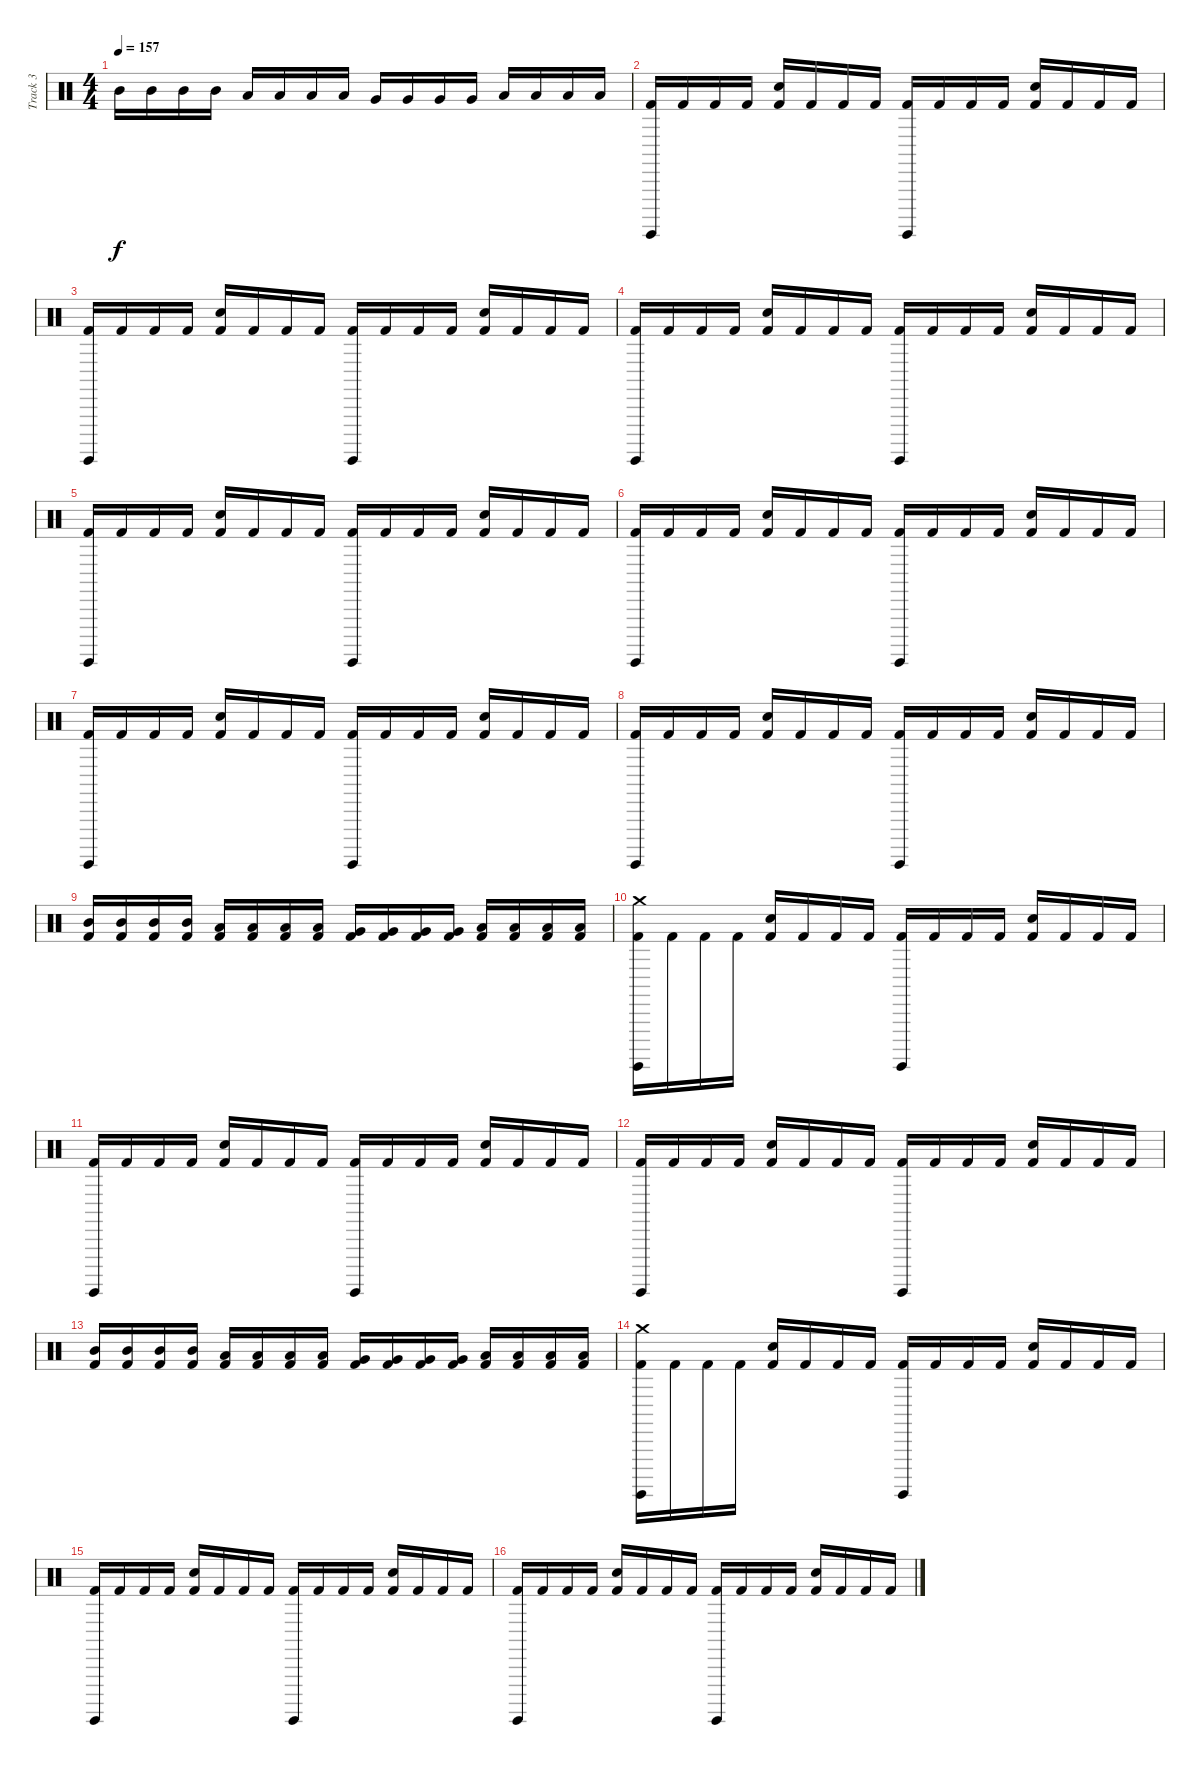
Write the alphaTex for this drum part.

\track ("Track 3" "Track 3") {instrument percussion}
\staff {score}
\articulation defaults
\ts (4 4)
\tempo 157
\clef neutral
\ks c "Mid Tom (hit)".16{dy f} "Mid Tom (hit)".16 "Mid Tom (hit)".16 "Mid Tom (hit)".16 "Low Tom (hit)".16 "Low Tom (hit)".16 "Low Tom (hit)".16 "Low Tom (hit)".16 "Very Low Tom (hit)".16 "Very Low Tom (hit)".16 "Very Low Tom (hit)".16 "Very Low Tom (hit)".16 "Low Floor Tom (hit)".16 "Low Floor Tom (hit)".16 "Low Floor Tom (hit)".16 "Low Floor Tom (hit)".16
|
("Kick (hit) 2" "Surdo (hit)").16 "Kick (hit) 2".16 "Kick (hit) 2".16 "Kick (hit) 2".16 ("Kick (hit) 2" "Snare (hit) 2").16 "Kick (hit) 2".16 "Kick (hit) 2".16 "Kick (hit) 2".16 ("Kick (hit) 2" "Surdo (hit)").16 "Kick (hit) 2".16 "Kick (hit) 2".16 "Kick (hit) 2".16 ("Kick (hit) 2" "Snare (hit) 2").16 "Kick (hit) 2".16 "Kick (hit) 2".16 "Kick (hit) 2".16 |
("Kick (hit) 2" "Surdo (hit)").16 "Kick (hit) 2".16 "Kick (hit) 2".16 "Kick (hit) 2".16 ("Kick (hit) 2" "Snare (hit) 2").16 "Kick (hit) 2".16 "Kick (hit) 2".16 "Kick (hit) 2".16 ("Kick (hit) 2" "Surdo (hit)").16 "Kick (hit) 2".16 "Kick (hit) 2".16 "Kick (hit) 2".16 ("Kick (hit) 2" "Snare (hit) 2").16 "Kick (hit) 2".16 "Kick (hit) 2".16 "Kick (hit) 2".16 |
("Kick (hit) 2" "Surdo (hit)").16 "Kick (hit) 2".16 "Kick (hit) 2".16 "Kick (hit) 2".16 ("Kick (hit) 2" "Snare (hit) 2").16 "Kick (hit) 2".16 "Kick (hit) 2".16 "Kick (hit) 2".16 ("Kick (hit) 2" "Surdo (hit)").16 "Kick (hit) 2".16 "Kick (hit) 2".16 "Kick (hit) 2".16 ("Kick (hit) 2" "Snare (hit) 2").16 "Kick (hit) 2".16 "Kick (hit) 2".16 "Kick (hit) 2".16 |
("Kick (hit) 2" "Surdo (hit)").16 "Kick (hit) 2".16 "Kick (hit) 2".16 "Kick (hit) 2".16 ("Kick (hit) 2" "Snare (hit) 2").16 "Kick (hit) 2".16 "Kick (hit) 2".16 "Kick (hit) 2".16 ("Kick (hit) 2" "Surdo (hit)").16 "Kick (hit) 2".16 "Kick (hit) 2".16 "Kick (hit) 2".16 ("Kick (hit) 2" "Snare (hit) 2").16 "Kick (hit) 2".16 "Kick (hit) 2".16 "Kick (hit) 2".16 |
("Kick (hit) 2" "Surdo (hit)").16 "Kick (hit) 2".16 "Kick (hit) 2".16 "Kick (hit) 2".16 ("Kick (hit) 2" "Snare (hit) 2").16 "Kick (hit) 2".16 "Kick (hit) 2".16 "Kick (hit) 2".16 ("Kick (hit) 2" "Surdo (hit)").16 "Kick (hit) 2".16 "Kick (hit) 2".16 "Kick (hit) 2".16 ("Kick (hit) 2" "Snare (hit) 2").16 "Kick (hit) 2".16 "Kick (hit) 2".16 "Kick (hit) 2".16 |
("Kick (hit) 2" "Surdo (hit)").16 "Kick (hit) 2".16 "Kick (hit) 2".16 "Kick (hit) 2".16 ("Kick (hit) 2" "Snare (hit) 2").16 "Kick (hit) 2".16 "Kick (hit) 2".16 "Kick (hit) 2".16 ("Kick (hit) 2" "Surdo (hit)").16 "Kick (hit) 2".16 "Kick (hit) 2".16 "Kick (hit) 2".16 ("Kick (hit) 2" "Snare (hit) 2").16 "Kick (hit) 2".16 "Kick (hit) 2".16 "Kick (hit) 2".16 |
("Kick (hit) 2" "Surdo (hit)").16 "Kick (hit) 2".16 "Kick (hit) 2".16 "Kick (hit) 2".16 ("Kick (hit) 2" "Snare (hit) 2").16 "Kick (hit) 2".16 "Kick (hit) 2".16 "Kick (hit) 2".16 ("Kick (hit) 2" "Surdo (hit)").16 "Kick (hit) 2".16 "Kick (hit) 2".16 "Kick (hit) 2".16 ("Kick (hit) 2" "Snare (hit) 2").16 "Kick (hit) 2".16 "Kick (hit) 2".16 "Kick (hit) 2".16 |
("Mid Tom (hit)" "Kick (hit) 2").16 ("Mid Tom (hit)" "Kick (hit) 2").16 ("Mid Tom (hit)" "Kick (hit) 2").16 ("Mid Tom (hit)" "Kick (hit) 2").16 ("Low Tom (hit)" "Kick (hit) 2").16 ("Low Tom (hit)" "Kick (hit) 2").16 ("Low Tom (hit)" "Kick (hit) 2").16 ("Low Tom (hit)" "Kick (hit) 2").16 ("Very Low Tom (hit)" "Kick (hit) 2").16 ("Very Low Tom (hit)" "Kick (hit) 2").16 ("Very Low Tom (hit)" "Kick (hit) 2").16 ("Very Low Tom (hit)" "Kick (hit) 2").16 ("Low Floor Tom (hit)" "Kick (hit) 2").16 ("Low Floor Tom (hit)" "Kick (hit) 2").16 ("Low Floor Tom (hit)" "Kick (hit) 2").16 ("Low Floor Tom (hit)" "Kick (hit) 2").16 |
("Kick (hit) 2" "Surdo (hit)" "Crash medium (hit)").16 "Kick (hit) 2".16 "Kick (hit) 2".16 "Kick (hit) 2".16 ("Kick (hit) 2" "Snare (hit) 2").16 "Kick (hit) 2".16 "Kick (hit) 2".16 "Kick (hit) 2".16 ("Kick (hit) 2" "Surdo (hit)").16 "Kick (hit) 2".16 "Kick (hit) 2".16 "Kick (hit) 2".16 ("Kick (hit) 2" "Snare (hit) 2").16 "Kick (hit) 2".16 "Kick (hit) 2".16 "Kick (hit) 2".16 |
("Kick (hit) 2" "Surdo (hit)").16 "Kick (hit) 2".16 "Kick (hit) 2".16 "Kick (hit) 2".16 ("Kick (hit) 2" "Snare (hit) 2").16 "Kick (hit) 2".16 "Kick (hit) 2".16 "Kick (hit) 2".16 ("Kick (hit) 2" "Surdo (hit)").16 "Kick (hit) 2".16 "Kick (hit) 2".16 "Kick (hit) 2".16 ("Kick (hit) 2" "Snare (hit) 2").16 "Kick (hit) 2".16 "Kick (hit) 2".16 "Kick (hit) 2".16 |
("Kick (hit) 2" "Surdo (hit)").16 "Kick (hit) 2".16 "Kick (hit) 2".16 "Kick (hit) 2".16 ("Kick (hit) 2" "Snare (hit) 2").16 "Kick (hit) 2".16 "Kick (hit) 2".16 "Kick (hit) 2".16 ("Kick (hit) 2" "Surdo (hit)").16 "Kick (hit) 2".16 "Kick (hit) 2".16 "Kick (hit) 2".16 ("Kick (hit) 2" "Snare (hit) 2").16 "Kick (hit) 2".16 "Kick (hit) 2".16 "Kick (hit) 2".16 |
("Mid Tom (hit)" "Kick (hit) 2").16 ("Mid Tom (hit)" "Kick (hit) 2").16 ("Mid Tom (hit)" "Kick (hit) 2").16 ("Mid Tom (hit)" "Kick (hit) 2").16 ("Low Tom (hit)" "Kick (hit) 2").16 ("Low Tom (hit)" "Kick (hit) 2").16 ("Low Tom (hit)" "Kick (hit) 2").16 ("Low Tom (hit)" "Kick (hit) 2").16 ("Very Low Tom (hit)" "Kick (hit) 2").16 ("Very Low Tom (hit)" "Kick (hit) 2").16 ("Very Low Tom (hit)" "Kick (hit) 2").16 ("Very Low Tom (hit)" "Kick (hit) 2").16 ("Low Floor Tom (hit)" "Kick (hit) 2").16 ("Low Floor Tom (hit)" "Kick (hit) 2").16 ("Low Floor Tom (hit)" "Kick (hit) 2").16 ("Low Floor Tom (hit)" "Kick (hit) 2").16 |
("Kick (hit) 2" "Surdo (hit)" "Crash medium (hit)").16 "Kick (hit) 2".16 "Kick (hit) 2".16 "Kick (hit) 2".16 ("Kick (hit) 2" "Snare (hit) 2").16 "Kick (hit) 2".16 "Kick (hit) 2".16 "Kick (hit) 2".16 ("Kick (hit) 2" "Surdo (hit)").16 "Kick (hit) 2".16 "Kick (hit) 2".16 "Kick (hit) 2".16 ("Kick (hit) 2" "Snare (hit) 2").16 "Kick (hit) 2".16 "Kick (hit) 2".16 "Kick (hit) 2".16 |
("Kick (hit) 2" "Surdo (hit)").16 "Kick (hit) 2".16 "Kick (hit) 2".16 "Kick (hit) 2".16 ("Kick (hit) 2" "Snare (hit) 2").16 "Kick (hit) 2".16 "Kick (hit) 2".16 "Kick (hit) 2".16 ("Kick (hit) 2" "Surdo (hit)").16 "Kick (hit) 2".16 "Kick (hit) 2".16 "Kick (hit) 2".16 ("Kick (hit) 2" "Snare (hit) 2").16 "Kick (hit) 2".16 "Kick (hit) 2".16 "Kick (hit) 2".16 |
("Kick (hit) 2" "Surdo (hit)").16 "Kick (hit) 2".16 "Kick (hit) 2".16 "Kick (hit) 2".16 ("Kick (hit) 2" "Snare (hit) 2").16 "Kick (hit) 2".16 "Kick (hit) 2".16 "Kick (hit) 2".16 ("Kick (hit) 2" "Surdo (hit)").16 "Kick (hit) 2".16 "Kick (hit) 2".16 "Kick (hit) 2".16 ("Kick (hit) 2" "Snare (hit) 2").16 "Kick (hit) 2".16 "Kick (hit) 2".16 "Kick (hit) 2".16
